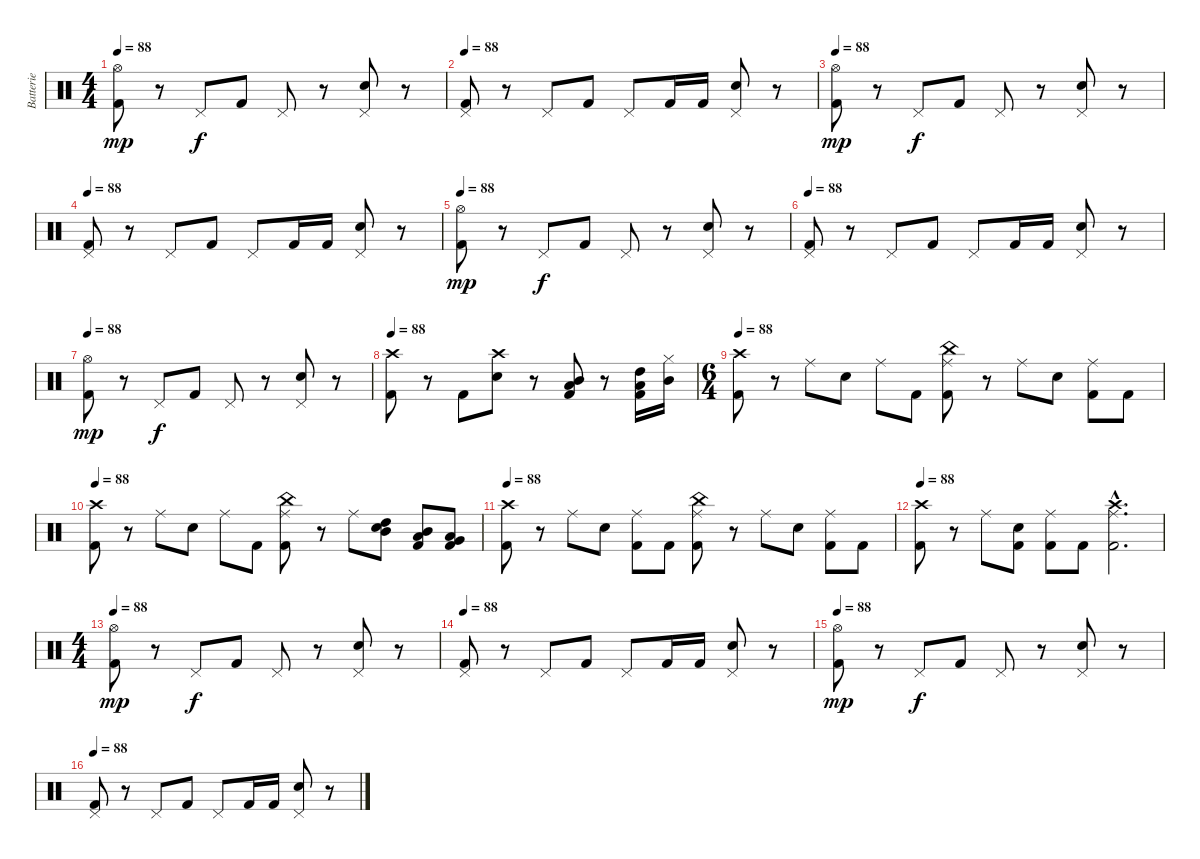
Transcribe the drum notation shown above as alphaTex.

\track ("Batterie" "Batterie") {instrument percussion}
\staff {score}
\articulation defaults
\ts (4 4)
\tempo 88
\clef neutral
\ks c
("Hi-Hat (open)" "Kick (hit) 2").8{dy mp} r.8 "Pedal Hi-Hat (hit)".8{dy f} "Kick (hit) 2".8 "Pedal Hi-Hat (hit)".8 r.8 ("Pedal Hi-Hat (hit)" "Electric Snare (hit)").8 r.8 |
\tempo 88
("Pedal Hi-Hat (hit)" "Kick (hit) 2").8 r.8 "Pedal Hi-Hat (hit)".8 "Kick (hit) 2".8 "Pedal Hi-Hat (hit)".8 "Kick (hit) 2".16 "Kick (hit) 2".16 ("Pedal Hi-Hat (hit)" "Electric Snare (hit)").8 r.8 |
\tempo 88
("Hi-Hat (open)" "Kick (hit) 2").8{dy mp} r.8 "Pedal Hi-Hat (hit)".8{dy f} "Kick (hit) 2".8 "Pedal Hi-Hat (hit)".8 r.8 ("Pedal Hi-Hat (hit)" "Electric Snare (hit)").8 r.8 |
\tempo 88
("Pedal Hi-Hat (hit)" "Kick (hit) 2").8 r.8 "Pedal Hi-Hat (hit)".8 "Kick (hit) 2".8 "Pedal Hi-Hat (hit)".8 "Kick (hit) 2".16 "Kick (hit) 2".16 ("Pedal Hi-Hat (hit)" "Electric Snare (hit)").8 r.8 |
\tempo 88
("Hi-Hat (open)" "Kick (hit) 2").8{dy mp} r.8 "Pedal Hi-Hat (hit)".8{dy f} "Kick (hit) 2".8 "Pedal Hi-Hat (hit)".8 r.8 ("Pedal Hi-Hat (hit)" "Electric Snare (hit)").8 r.8 |
\tempo 88
("Pedal Hi-Hat (hit)" "Kick (hit) 2").8 r.8 "Pedal Hi-Hat (hit)".8 "Kick (hit) 2".8 "Pedal Hi-Hat (hit)".8 "Kick (hit) 2".16 "Kick (hit) 2".16 ("Pedal Hi-Hat (hit)" "Electric Snare (hit)").8 r.8 |
\tempo 88
("Hi-Hat (open)" "Kick (hit) 2").8{dy mp} r.8 "Pedal Hi-Hat (hit)".8{dy f} "Kick (hit) 2".8 "Pedal Hi-Hat (hit)".8 r.8 ("Pedal Hi-Hat (hit)" "Electric Snare (hit)").8 r.8 |
\tempo 88
("Crash high (hit)" "Kick (hit) 2").8 r.8 "Kick (hit) 2".8 ("Crash high (hit)" "Electric Snare (hit)").8 r.8 ("Mid Tom (hit)" "Low Tom (hit)" "Kick (hit) 2").8 r.8 ("High Tom (hit)" "Low Tom (hit)" "Kick (hit) 2").16 ("Mid Tom (hit)" "Hi-Hat (closed)").16 |
\ts (6 4)
\tempo 88
("Crash high (hit)" "Kick (hit) 2").8 r.8 "Ride (middle)".8 "Electric Snare (hit)".8 "Ride (middle)".8 "Kick (hit) 2".8 ("China (hit)" "Ride (middle)" "Kick (hit) 2").8 r.8 "Ride (middle)".8 "Electric Snare (hit)".8 ("Ride (middle)" "Kick (hit) 2").8 "Kick (hit) 2".8 |
\tempo 88
("Crash high (hit)" "Kick (hit) 2").8 r.8 "Ride (middle)".8 "Electric Snare (hit)".8 "Ride (middle)".8 "Kick (hit) 2".8 ("China (hit)" "Ride (middle)" "Kick (hit) 2").8 r.8 "Ride (middle)".8 ("High Tom (hit)" "Mid Tom (hit)" "Electric Snare (hit)").8 ("Mid Tom (hit)" "Low Tom (hit)" "Kick (hit) 2").8 ("Low Tom (hit)" "Very Low Tom (hit)" "Kick (hit) 2").8 |
\tempo 88
("Crash high (hit)" "Kick (hit) 2").8 r.8 "Ride (middle)".8 "Electric Snare (hit)".8 ("Ride (middle)" "Kick (hit) 2").8 "Kick (hit) 2".8 ("China (hit)" "Ride (middle)" "Kick (hit) 2").8 r.8 "Ride (middle)".8 "Electric Snare (hit)".8 ("Ride (middle)" "Kick (hit) 2").8 "Kick (hit) 2".8 |
\tempo 88
("Crash high (hit)" "Kick (hit) 2").8 r.8 "Ride (middle)".8 ("Electric Snare (hit)" "Kick (hit) 2").8 ("Ride (middle)" "Kick (hit) 2").8 "Kick (hit) 2".8 ("Crash high (hit)"{hac} "Ride (middle)"{hac} "Kick (hit) 2"{hac}).2{d} |
\ts (4 4)
\tempo 88
("Hi-Hat (open)" "Kick (hit) 2").8{dy mp} r.8 "Pedal Hi-Hat (hit)".8{dy f} "Kick (hit) 2".8 "Pedal Hi-Hat (hit)".8 r.8 ("Pedal Hi-Hat (hit)" "Electric Snare (hit)").8 r.8 |
\tempo 88
("Pedal Hi-Hat (hit)" "Kick (hit) 2").8 r.8 "Pedal Hi-Hat (hit)".8 "Kick (hit) 2".8 "Pedal Hi-Hat (hit)".8 "Kick (hit) 2".16 "Kick (hit) 2".16 ("Pedal Hi-Hat (hit)" "Electric Snare (hit)").8 r.8 |
\tempo 88
("Hi-Hat (open)" "Kick (hit) 2").8{dy mp} r.8 "Pedal Hi-Hat (hit)".8{dy f} "Kick (hit) 2".8 "Pedal Hi-Hat (hit)".8 r.8 ("Pedal Hi-Hat (hit)" "Electric Snare (hit)").8 r.8 |
\tempo 88
("Pedal Hi-Hat (hit)" "Kick (hit) 2").8 r.8 "Pedal Hi-Hat (hit)".8 "Kick (hit) 2".8 "Pedal Hi-Hat (hit)".8 "Kick (hit) 2".16 "Kick (hit) 2".16 ("Pedal Hi-Hat (hit)" "Electric Snare (hit)").8 r.8
